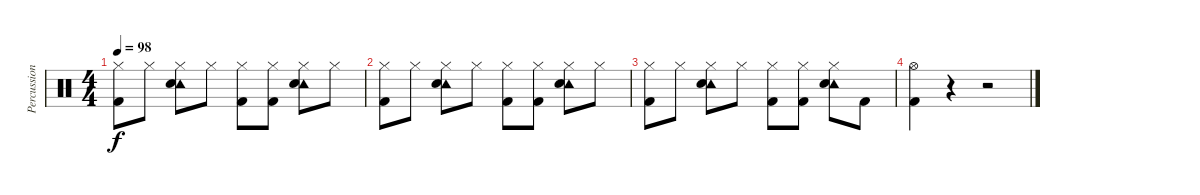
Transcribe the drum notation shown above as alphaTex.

\track ("Percussion" "Percussion") {instrument percussion}
\staff {score}
\articulation defaults
\ts (4 4)
\tempo 98
\clef neutral
\ks c
("Hi-Hat (closed)" "Kick (hit) 2").8{dy f} "Hi-Hat (closed)".8 ("Tambourine (hit)" "Hi-Hat (closed)" "Snare (hit) 2").8 "Hi-Hat (closed)".8 ("Hi-Hat (closed)" "Kick (hit) 2").8 ("Hi-Hat (closed)" "Kick (hit) 2").8 ("Tambourine (hit)" "Hi-Hat (closed)" "Snare (hit) 2").8 "Hi-Hat (closed)".8 |
("Hi-Hat (closed)" "Kick (hit) 2").8 "Hi-Hat (closed)".8 ("Tambourine (hit)" "Hi-Hat (closed)" "Snare (hit) 2").8 "Hi-Hat (closed)".8 ("Hi-Hat (closed)" "Kick (hit) 2").8 ("Hi-Hat (closed)" "Kick (hit) 2").8 ("Tambourine (hit)" "Hi-Hat (closed)" "Snare (hit) 2").8 "Hi-Hat (closed)".8 |
("Hi-Hat (closed)" "Kick (hit) 2").8 "Hi-Hat (closed)".8 ("Tambourine (hit)" "Hi-Hat (closed)" "Snare (hit) 2").8 "Hi-Hat (closed)".8 ("Hi-Hat (closed)" "Kick (hit) 2").8 ("Hi-Hat (closed)" "Kick (hit) 2").8 ("Tambourine (hit)" "Hi-Hat (closed)" "Snare (hit) 2").8 "Kick (hit) 2".8 |
("Hi-Hat (open)" "Kick (hit) 2").4 r.4 r.2
